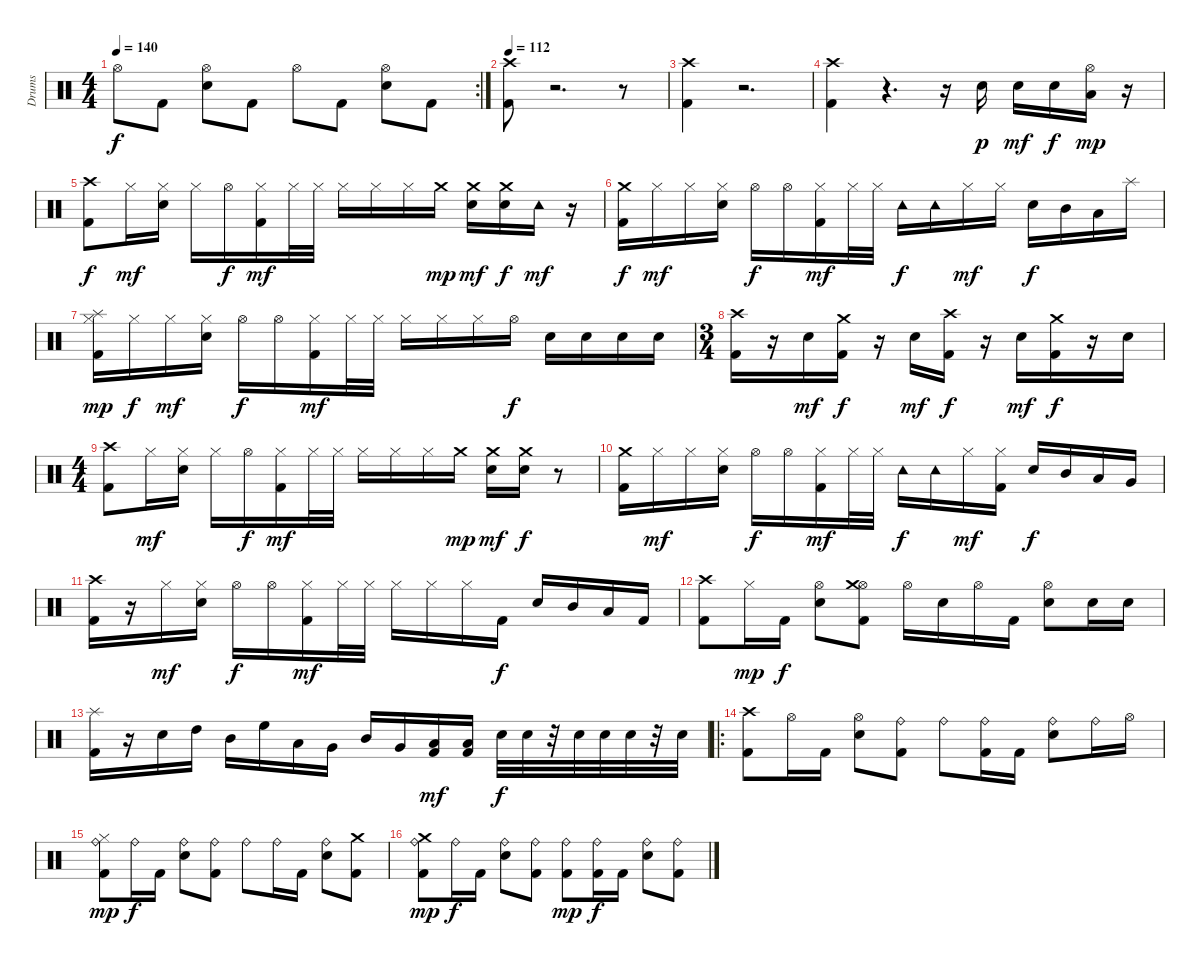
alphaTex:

\track ("Drums" "Drums") {instrument percussion}
\staff {score}
\articulation defaults
\rc 2
\ts (4 4)
\tempo 140
\clef neutral
\ks c "Hi-Hat (open)".8{dy f} "Kick (hit) 2".8
("Hi-Hat (open)" "Electric Snare (hit)").8 "Kick (hit) 2".8 "Hi-Hat (open)".8 "Kick (hit) 2".8 ("Hi-Hat (open)" "Electric Snare (hit)").8 "Kick (hit) 2".8 |
\tempo 112
("Crash high (hit)" "Kick (hit) 2").8 r.2{d} r.8 |
("Crash high (hit)" "Kick (hit) 2").4 r.2{d} |
("Crash high (hit)" "Kick (hit) 2").4 r.4{d} r.16 "Electric Snare (hit)".16{dy p} "Electric Snare (hit)".16{dy mf} "Electric Snare (hit)".16{dy f} ("Low Tom (hit)" "Hi-Hat (open)").16{dy mp} r.16 |
("Crash high (hit)" "Kick (hit) 2").8{dy f} "Hi-Hat (closed)".16{dy mf} ("Electric Snare (hit)" "Hi-Hat (closed)").16 "Hi-Hat (closed)".16 "Hi-Hat (open)".16{dy f} ("Kick (hit) 2" "Hi-Hat (closed)").16{dy mf} "Hi-Hat (closed)".32 "Hi-Hat (closed)".32 "Hi-Hat (closed)".16 "Hi-Hat (closed)".16 "Hi-Hat (closed)".16 "Crash medium (hit)".16{dy mp} ("Electric Snare (hit)" "Crash medium (hit)").16{dy mf} ("Electric Snare (hit)" "Crash medium (hit)").16{dy f} "Tambourine (hit)".16{dy mf} r.16 |
("Kick (hit) 2" "Crash medium (hit)").16{dy f} "Hi-Hat (closed)".16{dy mf} "Hi-Hat (closed)".16 ("Electric Snare (hit)" "Hi-Hat (closed)").16 "Hi-Hat (open)".16{dy f} "Hi-Hat (open)".16 ("Kick (hit) 2" "Hi-Hat (closed)").16{dy mf} "Hi-Hat (closed)".32 "Hi-Hat (closed)".32 "Tambourine (hit)".16{dy f} "Tambourine (hit)".16 "Hi-Hat (closed)".16{dy mf} "Hi-Hat (closed)".16 "Electric Snare (hit)".16{dy f} "Mid Tom (hit)".16 "Low Tom (hit)".16 "Splash (hit)".16 |
("Kick (hit) 2" "Splash (hit)" "Hi-Hat (closed)").16{dy mp} "Hi-Hat (closed)".16{dy f} "Hi-Hat (closed)".16{dy mf} ("Electric Snare (hit)" "Hi-Hat (closed)").16 "Hi-Hat (open)".16{dy f} "Hi-Hat (open)".16 ("Kick (hit) 2" "Hi-Hat (closed)").16{dy mf} "Hi-Hat (closed)".32 "Hi-Hat (closed)".32 "Hi-Hat (closed)".16 "Hi-Hat (closed)".16 "Hi-Hat (closed)".16 "Hi-Hat (open)".16{dy f} "Electric Snare (hit)".16 "Electric Snare (hit)".16 "Electric Snare (hit)".16 "Electric Snare (hit)".16 |
\ts (3 4)
("Kick (hit) 2" "Crash high (hit)").16 r.16 "Electric Snare (hit)".16{dy mf} ("Kick (hit) 2" "Crash medium (hit)").16{dy f} r.16 "Electric Snare (hit)".16{dy mf} ("Kick (hit) 2" "Crash high (hit)").16{dy f} r.16 "Electric Snare (hit)".16{dy mf} ("Kick (hit) 2" "Crash medium (hit)").16{dy f} r.16 "Electric Snare (hit)".16 |
\ts (4 4)
("Kick (hit) 2" "Crash high (hit)").8 "Hi-Hat (closed)".16{dy mf} ("Electric Snare (hit)" "Hi-Hat (closed)").16 "Hi-Hat (closed)".16 "Hi-Hat (open)".16{dy f} ("Kick (hit) 2" "Hi-Hat (closed)").16{dy mf} "Hi-Hat (closed)".32 "Hi-Hat (closed)".32 "Hi-Hat (closed)".16 "Hi-Hat (closed)".16 "Hi-Hat (closed)".16 "Crash medium (hit)".16{dy mp} ("Electric Snare (hit)" "Crash medium (hit)").16{dy mf} ("Electric Snare (hit)" "Crash medium (hit)").16{dy f} r.8 |
("Crash medium (hit)" "Kick (hit) 2").16 "Hi-Hat (closed)".16{dy mf} "Hi-Hat (closed)".16 ("Electric Snare (hit)" "Hi-Hat (closed)").16 "Hi-Hat (open)".16{dy f} "Hi-Hat (open)".16 ("Kick (hit) 2" "Hi-Hat (closed)").16{dy mf} "Hi-Hat (closed)".32 "Hi-Hat (closed)".32 "Tambourine (hit)".16{dy f} "Tambourine (hit)".16 "Hi-Hat (closed)".16{dy mf} ("Kick (hit) 2" "Hi-Hat (closed)").16 "Electric Snare (hit)".16{dy f} "Mid Tom (hit)".16 "Low Tom (hit)".16 "Very Low Tom (hit)".16 |
("Crash high (hit)" "Kick (hit) 2").16 r.16 "Hi-Hat (closed)".16{dy mf} ("Electric Snare (hit)" "Hi-Hat (closed)").16 "Hi-Hat (open)".16{dy f} "Hi-Hat (open)".16 ("Kick (hit) 2" "Hi-Hat (closed)").16{dy mf} "Hi-Hat (closed)".32 "Hi-Hat (closed)".32 "Hi-Hat (closed)".16 "Hi-Hat (closed)".16 "Hi-Hat (closed)".16 "Kick (hit) 2".16{dy f} "Electric Snare (hit)".16 "Mid Tom (hit)".16 "Low Tom (hit)".16 "Kick (hit) 2".16 |
("Crash high (hit)" "Kick (hit) 2").8 "Hi-Hat (closed)".16{dy mp} "Kick (hit) 2".16{dy f} ("Electric Snare (hit)" "Hi-Hat (open)").8 ("Hi-Hat (open)" "Kick (hit) 2" "Crash medium (hit)").8 "Hi-Hat (open)".16 "Electric Snare (hit)".16 "Hi-Hat (open)".16 "Kick (hit) 2".16 ("Electric Snare (hit)" "Hi-Hat (open)").8 "Electric Snare (hit)".16 "Electric Snare (hit)".16 |
("Splash (hit)" "Kick (hit) 2").16 r.16 "Electric Snare (hit)".16 "High Tom (hit)".16 "Mid Tom (hit)".16 "High Floor Tom (hit)".16 "Low Tom (hit)".16 "Very Low Tom (hit)".16 "Mid Tom (hit)".16 "Very Low Tom (hit)".16 ("Kick (hit) 2" "Low Floor Tom (hit)").16{dy mf} ("Kick (hit) 2" "Low Floor Tom (hit)").16 "Electric Snare (hit)".32{dy f} "Electric Snare (hit)".32 r.32 "Electric Snare (hit)".32 "Electric Snare (hit)".32 "Electric Snare (hit)".32 r.32 "Electric Snare (hit)".32 |
\ro
("Crash high (hit)" "Kick (hit) 2").8 "Hi-Hat (open)".16 "Kick (hit) 2".16 ("Electric Snare (hit)" "Hi-Hat (open)").8 ("Kick (hit) 2" "Ride (bell)").8 "Ride (bell)".8 ("Kick (hit) 2" "Ride (bell)").16 "Kick (hit) 2".16 ("Electric Snare (hit)" "Ride (bell)").8 "Ride (bell)".16 "Hi-Hat (open)".16 |
("Ride (bell)" "Hi-Hat (closed)" "Kick (hit) 2").8{dy mp} "Ride (bell)".16{dy f} "Kick (hit) 2".16 ("Electric Snare (hit)" "Ride (bell)").8 ("Kick (hit) 2" "Ride (bell)").8 "Ride (bell)".8 "Ride (bell)".16 "Kick (hit) 2".16 ("Ride (bell)" "Electric Snare (hit)").8 ("Kick (hit) 2" "Crash medium (hit)").8 |
("Kick (hit) 2" "Ride (bell)" "Crash medium (hit)").8{dy mp} "Ride (bell)".16{dy f} "Kick (hit) 2".16 ("Electric Snare (hit)" "Ride (bell)").8 ("Ride (bell)" "Kick (hit) 2").8 ("Ride (bell)" "Kick (hit) 2").8{dy mp} ("Ride (bell)" "Kick (hit) 2").16{dy f} "Kick (hit) 2".16 ("Ride (bell)" "Electric Snare (hit)").8 ("Kick (hit) 2" "Ride (bell)").8
